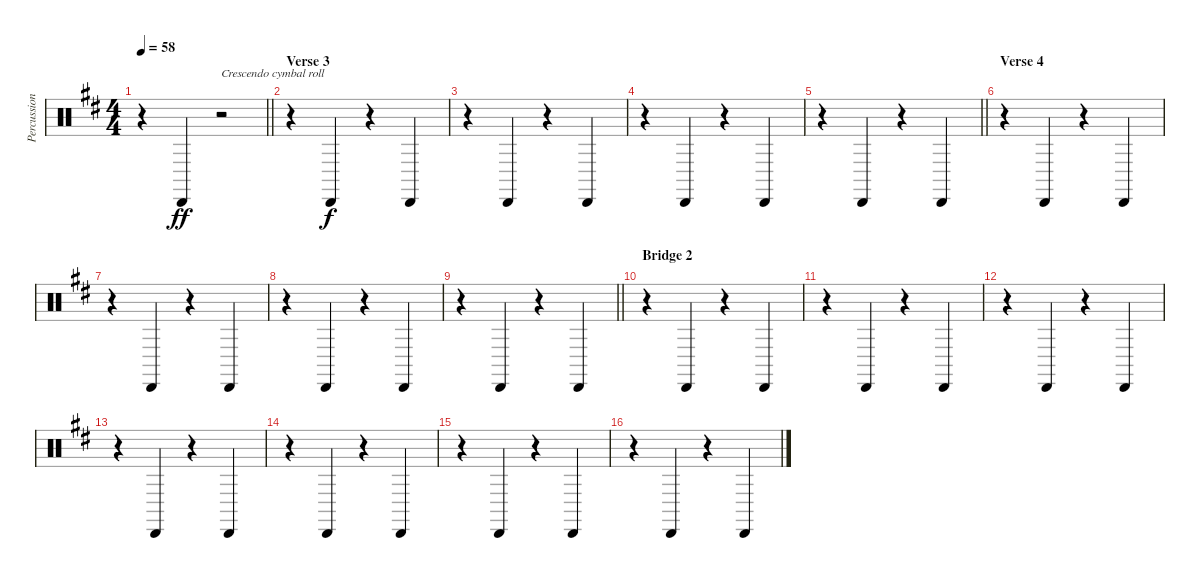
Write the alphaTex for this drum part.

\track ("Percussion" "Percussion") {instrument percussion}
\staff {score}
\articulation defaults
\ts (4 4)
\tempo 58
\clef neutral
\barLineRight lightlight
\ks bminor
r.4{dy f} "Cabasa (hit)".4{dy ff} r.2{txt "Crescendo cymbal roll"} |
\section ("" "Verse 3")
r.4 "Cabasa (hit)".4{dy f} r.4 "Cabasa (hit)".4 |
r.4 "Cabasa (hit)".4 r.4 "Cabasa (hit)".4 |
r.4 "Cabasa (hit)".4 r.4 "Cabasa (hit)".4 |
\barLineRight lightlight
r.4 "Cabasa (hit)".4 r.4 "Cabasa (hit)".4 |
\section ("" "Verse 4")
r.4 "Cabasa (hit)".4 r.4 "Cabasa (hit)".4 |
r.4 "Cabasa (hit)".4 r.4 "Cabasa (hit)".4 |
r.4 "Cabasa (hit)".4 r.4 "Cabasa (hit)".4 |
\barLineRight lightlight
r.4 "Cabasa (hit)".4 r.4 "Cabasa (hit)".4 |
\section ("" "Bridge 2")
r.4 "Cabasa (hit)".4 r.4 "Cabasa (hit)".4 |
r.4 "Cabasa (hit)".4 r.4 "Cabasa (hit)".4 |
r.4 "Cabasa (hit)".4 r.4 "Cabasa (hit)".4 |
r.4 "Cabasa (hit)".4 r.4 "Cabasa (hit)".4 |
r.4 "Cabasa (hit)".4 r.4 "Cabasa (hit)".4 |
r.4 "Cabasa (hit)".4 r.4 "Cabasa (hit)".4 |
r.4 "Cabasa (hit)".4 r.4 "Cabasa (hit)".4
